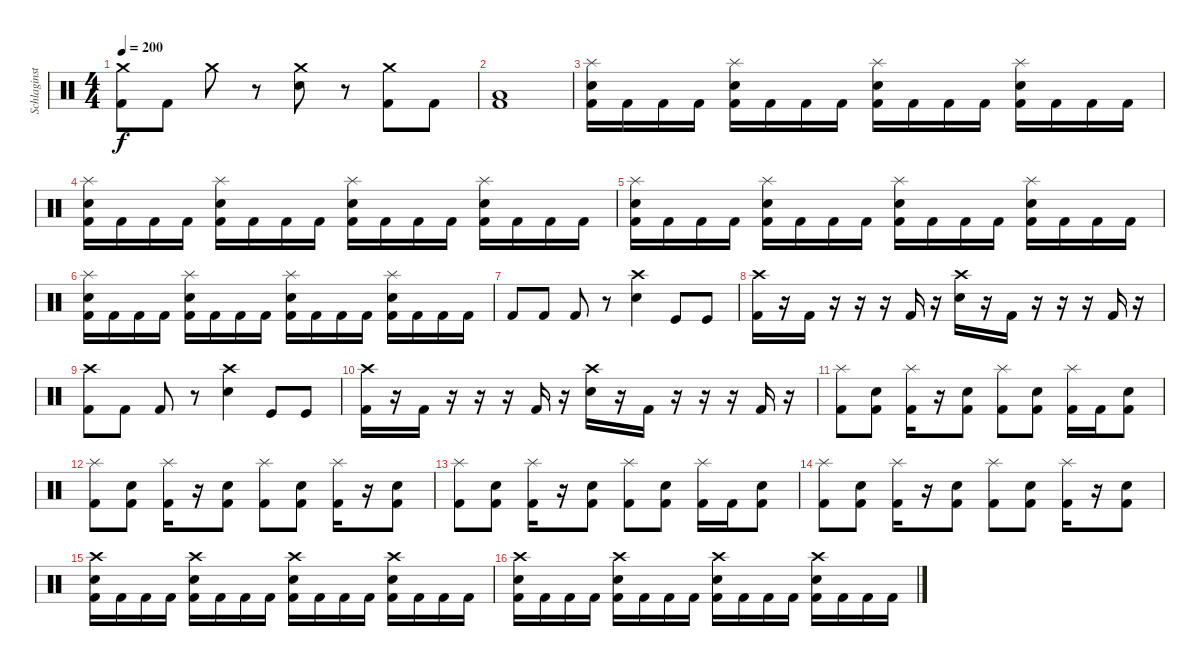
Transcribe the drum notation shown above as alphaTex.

\track ("Schlaginstrumente - Auswahl" "Schlaginst") {instrument percussion}
\staff {score}
\articulation defaults
\ts (4 4)
\tempo 200
\clef neutral
\ks c
("Crash medium (hit)" "Kick (hit) 2").8{dy f} "Kick (hit) 2".8 "Crash medium (hit)".8 r.8 ("Crash medium (hit)" "Electric Snare (hit)").8 r.8 ("Crash medium (hit)" "Kick (hit) 2").8 "Kick (hit) 2".8 |
("Low Floor Tom (hit)" "Kick (hit) 2").1 |
("Splash (hit)" "Electric Snare (hit)" "Kick (hit) 2").16 "Kick (hit) 2".16 "Kick (hit) 2".16 "Kick (hit) 2".16 ("Splash (hit)" "Electric Snare (hit)" "Kick (hit) 2").16 "Kick (hit) 2".16 "Kick (hit) 2".16 "Kick (hit) 2".16 ("Splash (hit)" "Electric Snare (hit)" "Kick (hit) 2").16 "Kick (hit) 2".16 "Kick (hit) 2".16 "Kick (hit) 2".16 ("Splash (hit)" "Electric Snare (hit)" "Kick (hit) 2").16 "Kick (hit) 2".16 "Kick (hit) 2".16 "Kick (hit) 2".16 |
("Splash (hit)" "Electric Snare (hit)" "Kick (hit) 2").16 "Kick (hit) 2".16 "Kick (hit) 2".16 "Kick (hit) 2".16 ("Splash (hit)" "Electric Snare (hit)" "Kick (hit) 2").16 "Kick (hit) 2".16 "Kick (hit) 2".16 "Kick (hit) 2".16 ("Splash (hit)" "Electric Snare (hit)" "Kick (hit) 2").16 "Kick (hit) 2".16 "Kick (hit) 2".16 "Kick (hit) 2".16 ("Splash (hit)" "Electric Snare (hit)" "Kick (hit) 2").16 "Kick (hit) 2".16 "Kick (hit) 2".16 "Kick (hit) 2".16 |
("Splash (hit)" "Electric Snare (hit)" "Kick (hit) 2").16 "Kick (hit) 2".16 "Kick (hit) 2".16 "Kick (hit) 2".16 ("Splash (hit)" "Electric Snare (hit)" "Kick (hit) 2").16 "Kick (hit) 2".16 "Kick (hit) 2".16 "Kick (hit) 2".16 ("Splash (hit)" "Electric Snare (hit)" "Kick (hit) 2").16 "Kick (hit) 2".16 "Kick (hit) 2".16 "Kick (hit) 2".16 ("Splash (hit)" "Electric Snare (hit)" "Kick (hit) 2").16 "Kick (hit) 2".16 "Kick (hit) 2".16 "Kick (hit) 2".16 |
("Splash (hit)" "Electric Snare (hit)" "Kick (hit) 2").16 "Kick (hit) 2".16 "Kick (hit) 2".16 "Kick (hit) 2".16 ("Splash (hit)" "Electric Snare (hit)" "Kick (hit) 2").16 "Kick (hit) 2".16 "Kick (hit) 2".16 "Kick (hit) 2".16 ("Splash (hit)" "Electric Snare (hit)" "Kick (hit) 2").16 "Kick (hit) 2".16 "Kick (hit) 2".16 "Kick (hit) 2".16 ("Splash (hit)" "Electric Snare (hit)" "Kick (hit) 2").16 "Kick (hit) 2".16 "Kick (hit) 2".16 "Kick (hit) 2".16 |
"Kick (hit) 2".8 "Kick (hit) 2".8 "Kick (hit) 2".8 r.8 ("Crash high (hit)" "Electric Snare (hit)").4 "Kick (hit)".8 "Kick (hit)".8 |
("Crash high (hit)" "Kick (hit) 2").16 r.16 "Kick (hit) 2".16 r.16 r.16 r.16 "Kick (hit) 2".16 r.16 ("Crash high (hit)" "Electric Snare (hit)").16 r.16 "Kick (hit) 2".16 r.16 r.16 r.16 "Kick (hit) 2".16 r.16 |
("Crash high (hit)" "Kick (hit) 2").8 "Kick (hit) 2".8 "Kick (hit) 2".8 r.8 ("Crash high (hit)" "Electric Snare (hit)").4 "Kick (hit)".8 "Kick (hit)".8 |
("Crash high (hit)" "Kick (hit) 2").16 r.16 "Kick (hit) 2".16 r.16 r.16 r.16 "Kick (hit) 2".16 r.16 ("Crash high (hit)" "Electric Snare (hit)").16 r.16 "Kick (hit) 2".16 r.16 r.16 r.16 "Kick (hit) 2".16 r.16 |
("Kick (hit) 2" "Splash (hit)").8 ("Kick (hit) 2" "Electric Snare (hit)").8 ("Kick (hit) 2" "Splash (hit)").16 r.16 ("Kick (hit) 2" "Electric Snare (hit)").8 ("Kick (hit) 2" "Splash (hit)").8 ("Kick (hit) 2" "Electric Snare (hit)").8 ("Kick (hit) 2" "Splash (hit)").16 "Kick (hit) 2".16 ("Kick (hit) 2" "Electric Snare (hit)").8 |
("Kick (hit) 2" "Splash (hit)").8 ("Kick (hit) 2" "Electric Snare (hit)").8 ("Kick (hit) 2" "Splash (hit)").16 r.16 ("Kick (hit) 2" "Electric Snare (hit)").8 ("Kick (hit) 2" "Splash (hit)").8 ("Kick (hit) 2" "Electric Snare (hit)").8 ("Kick (hit) 2" "Splash (hit)").16 r.16 ("Kick (hit) 2" "Electric Snare (hit)").8 |
("Kick (hit) 2" "Splash (hit)").8 ("Kick (hit) 2" "Electric Snare (hit)").8 ("Kick (hit) 2" "Splash (hit)").16 r.16 ("Kick (hit) 2" "Electric Snare (hit)").8 ("Kick (hit) 2" "Splash (hit)").8 ("Kick (hit) 2" "Electric Snare (hit)").8 ("Kick (hit) 2" "Splash (hit)").16 "Kick (hit) 2".16 ("Kick (hit) 2" "Electric Snare (hit)").8 |
("Kick (hit) 2" "Splash (hit)").8 ("Kick (hit) 2" "Electric Snare (hit)").8 ("Kick (hit) 2" "Splash (hit)").16 r.16 ("Kick (hit) 2" "Electric Snare (hit)").8 ("Kick (hit) 2" "Splash (hit)").8 ("Kick (hit) 2" "Electric Snare (hit)").8 ("Kick (hit) 2" "Splash (hit)").16 r.16 ("Kick (hit) 2" "Electric Snare (hit)").8 |
("Crash high (hit)" "Electric Snare (hit)" "Kick (hit) 2").16 "Kick (hit) 2".16 "Kick (hit) 2".16 "Kick (hit) 2".16 ("Crash high (hit)" "Electric Snare (hit)" "Kick (hit) 2").16 "Kick (hit) 2".16 "Kick (hit) 2".16 "Kick (hit) 2".16 ("Crash high (hit)" "Electric Snare (hit)" "Kick (hit) 2").16 "Kick (hit) 2".16 "Kick (hit) 2".16 "Kick (hit) 2".16 ("Crash high (hit)" "Electric Snare (hit)" "Kick (hit) 2").16 "Kick (hit) 2".16 "Kick (hit) 2".16 "Kick (hit) 2".16 |
("Crash high (hit)" "Electric Snare (hit)" "Kick (hit) 2").16 "Kick (hit) 2".16 "Kick (hit) 2".16 "Kick (hit) 2".16 ("Crash high (hit)" "Electric Snare (hit)" "Kick (hit) 2").16 "Kick (hit) 2".16 "Kick (hit) 2".16 "Kick (hit) 2".16 ("Crash high (hit)" "Electric Snare (hit)" "Kick (hit) 2").16 "Kick (hit) 2".16 "Kick (hit) 2".16 "Kick (hit) 2".16 ("Crash high (hit)" "Electric Snare (hit)" "Kick (hit) 2").16 "Kick (hit) 2".16 "Kick (hit) 2".16 "Kick (hit) 2".16
